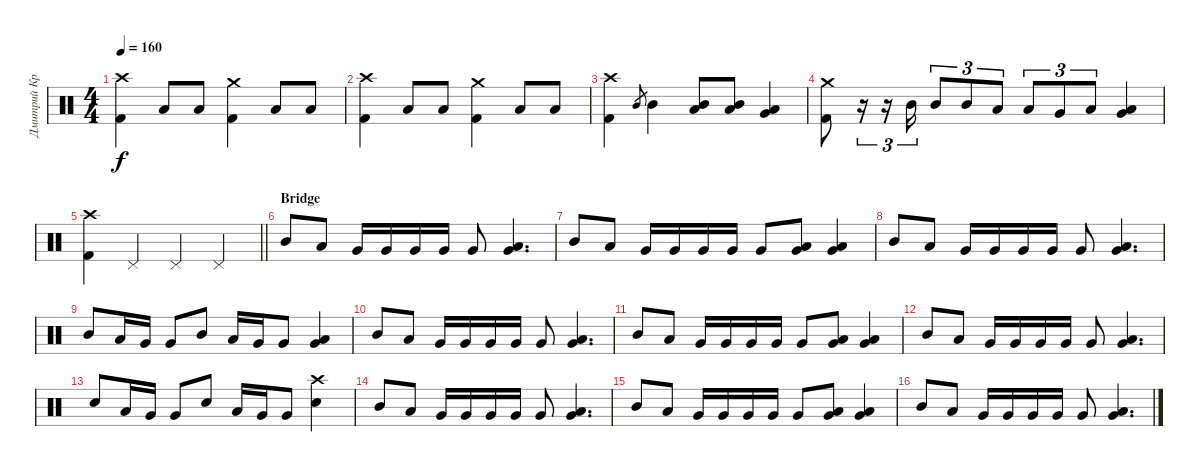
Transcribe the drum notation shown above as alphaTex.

\track ("Дмитрий Кривенков" "Дмитрий Кр") {instrument percussion}
\staff {score}
\articulation defaults
\ts (4 4)
\tempo 160
\clef neutral
\ks c
("Crash high (hit)" "Kick (hit) 2").4{dy f} "Low Tom (hit)".8 "Low Tom (hit)".8 ("Crash medium (hit)" "Kick (hit) 2").4 "Low Tom (hit)".8 "Low Tom (hit)".8 |
("Crash high (hit)" "Kick (hit) 2").4 "Low Tom (hit)".8 "Low Tom (hit)".8 ("Crash medium (hit)" "Kick (hit) 2").4 "Low Tom (hit)".8 "Low Tom (hit)".8 |
("Crash high (hit)" "Kick (hit) 2").4 "Mid Tom (hit)".8{gr} "Mid Tom (hit)".4 ("Mid Tom (hit)" "Low Tom (hit)").8 ("Mid Tom (hit)" "Low Tom (hit)").8 ("Low Tom (hit)" "Very Low Tom (hit)").4 |
("Crash medium (hit)" "Kick (hit) 2").8 r.16{tu (3 2)} r.16{tu (3 2)} "Mid Tom (hit)".16{tu (3 2)} "Mid Tom (hit)".8{tu (3 2)} "Mid Tom (hit)".8{tu (3 2)} "Low Tom (hit)".8{tu (3 2)} "Low Tom (hit)".8{tu (3 2)} "Very Low Tom (hit)".8{tu (3 2)} "Low Tom (hit)".8{tu (3 2)} ("Very Low Tom (hit)" "Low Floor Tom (hit)").4 |
\barLineRight lightlight
("Crash high (hit)" "Kick (hit) 2").4 "Pedal Hi-Hat (hit)".4 "Pedal Hi-Hat (hit)".4 "Pedal Hi-Hat (hit)".4 |
\section ("" "Bridge")
"Mid Tom (hit)".8 "Low Tom (hit)".8 "Very Low Tom (hit)".16 "Very Low Tom (hit)".16 "Very Low Tom (hit)".16 "Very Low Tom (hit)".16 "Very Low Tom (hit)".8 ("Low Tom (hit)" "Very Low Tom (hit)").4{d} |
"Mid Tom (hit)".8 "Low Tom (hit)".8 "Very Low Tom (hit)".16 "Very Low Tom (hit)".16 "Very Low Tom (hit)".16 "Very Low Tom (hit)".16 "Very Low Tom (hit)".8 ("Low Tom (hit)" "Very Low Tom (hit)").8 ("Low Tom (hit)" "Very Low Tom (hit)").4 |
"Mid Tom (hit)".8 "Low Tom (hit)".8 "Very Low Tom (hit)".16 "Very Low Tom (hit)".16 "Very Low Tom (hit)".16 "Very Low Tom (hit)".16 "Very Low Tom (hit)".8 ("Low Tom (hit)" "Very Low Tom (hit)").4{d} |
"Mid Tom (hit)".8 "Low Tom (hit)".16 "Very Low Tom (hit)".16 "Very Low Tom (hit)".8 "Mid Tom (hit)".8 "Low Tom (hit)".16 "Very Low Tom (hit)".16 "Very Low Tom (hit)".8 ("Low Tom (hit)" "Very Low Tom (hit)").4 |
"Mid Tom (hit)".8 "Low Tom (hit)".8 "Very Low Tom (hit)".16 "Very Low Tom (hit)".16 "Very Low Tom (hit)".16 "Very Low Tom (hit)".16 "Very Low Tom (hit)".8 ("Low Tom (hit)" "Very Low Tom (hit)").4{d} |
"Mid Tom (hit)".8 "Low Tom (hit)".8 "Very Low Tom (hit)".16 "Very Low Tom (hit)".16 "Very Low Tom (hit)".16 "Very Low Tom (hit)".16 "Very Low Tom (hit)".8 ("Low Tom (hit)" "Very Low Tom (hit)").8 ("Low Tom (hit)" "Very Low Tom (hit)").4 |
"Mid Tom (hit)".8 "Low Tom (hit)".8 "Very Low Tom (hit)".16 "Very Low Tom (hit)".16 "Very Low Tom (hit)".16 "Very Low Tom (hit)".16 "Very Low Tom (hit)".8 ("Low Tom (hit)" "Very Low Tom (hit)").4{d} |
"Electric Snare (hit)".8 "Low Tom (hit)".16 "Very Low Tom (hit)".16 "Very Low Tom (hit)".8 "Electric Snare (hit)".8 "Low Tom (hit)".16 "Very Low Tom (hit)".16 "Very Low Tom (hit)".8 ("Electric Snare (hit)" "Crash high (hit)").4 |
"Mid Tom (hit)".8 "Low Tom (hit)".8 "Very Low Tom (hit)".16 "Very Low Tom (hit)".16 "Very Low Tom (hit)".16 "Very Low Tom (hit)".16 "Very Low Tom (hit)".8 ("Low Tom (hit)" "Very Low Tom (hit)").4{d} |
"Mid Tom (hit)".8 "Low Tom (hit)".8 "Very Low Tom (hit)".16 "Very Low Tom (hit)".16 "Very Low Tom (hit)".16 "Very Low Tom (hit)".16 "Very Low Tom (hit)".8 ("Low Tom (hit)" "Very Low Tom (hit)").8 ("Low Tom (hit)" "Very Low Tom (hit)").4 |
"Mid Tom (hit)".8 "Low Tom (hit)".8 "Very Low Tom (hit)".16 "Very Low Tom (hit)".16 "Very Low Tom (hit)".16 "Very Low Tom (hit)".16 "Very Low Tom (hit)".8 ("Low Tom (hit)" "Very Low Tom (hit)").4{d}
